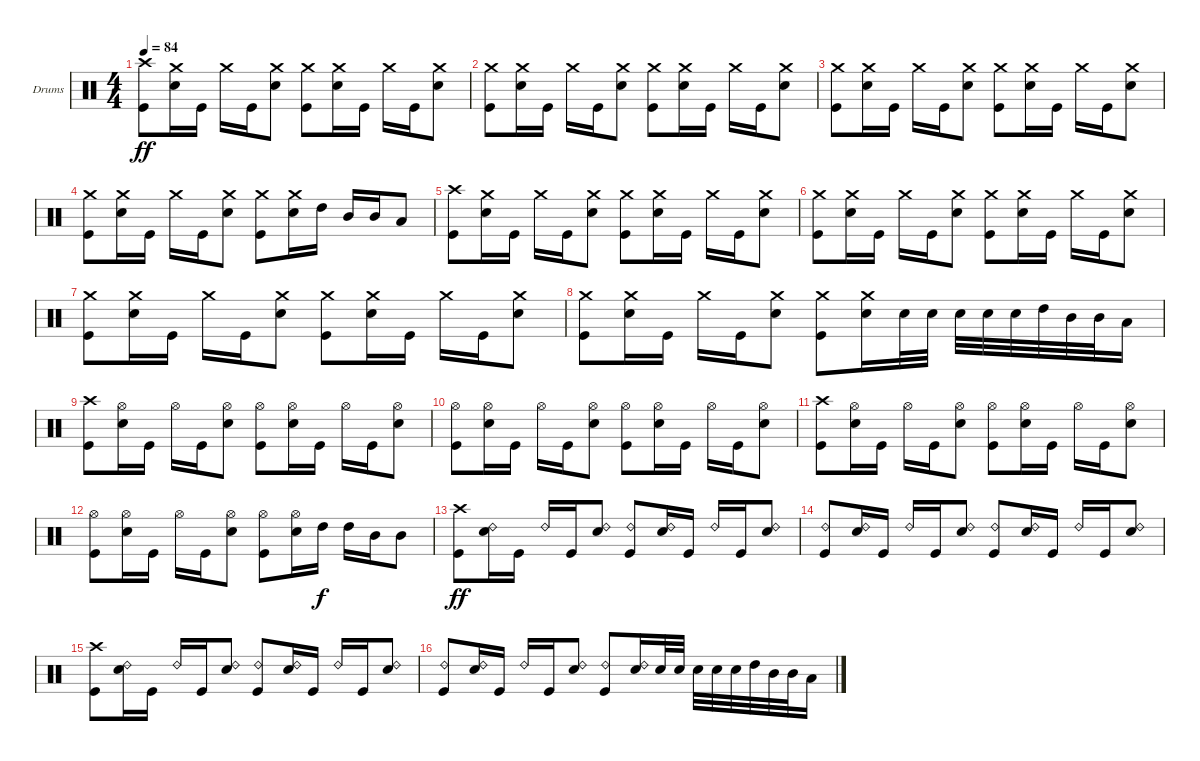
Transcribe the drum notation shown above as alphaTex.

\defaultSystemsLayout 4
\bracketExtendMode groupsimilarinstruments
\firstSystemTrackNameOrientation horizontal
\otherSystemsTrackNameOrientation horizontal
\track ("Drumkit" "Drums") {instrument percussion}
\staff {score}
\articulation defaults
\ts (4 4)
\tempo 84
\clef neutral
\ks c
("Kick (hit)" "Crash high (hit)").8{dy ff} ("Snare (hit) 2" "Crash medium (hit)").16 "Kick (hit)".16 "Crash medium (hit)".16 "Kick (hit)".16 ("Snare (hit) 2" "Crash medium (hit)").8 ("Kick (hit)" "Crash medium (hit)").8 ("Snare (hit) 2" "Crash medium (hit)").16 "Kick (hit)".16 "Crash medium (hit)".16 "Kick (hit)".16 ("Snare (hit) 2" "Crash medium (hit)").8 |
("Kick (hit)" "Crash medium (hit)").8 ("Snare (hit) 2" "Crash medium (hit)").16 "Kick (hit)".16 "Crash medium (hit)".16 "Kick (hit)".16 ("Snare (hit) 2" "Crash medium (hit)").8 ("Kick (hit)" "Crash medium (hit)").8 ("Snare (hit) 2" "Crash medium (hit)").16 "Kick (hit)".16 "Crash medium (hit)".16 "Kick (hit)".16 ("Snare (hit) 2" "Crash medium (hit)").8 |
("Kick (hit)" "Crash medium (hit)").8 ("Snare (hit) 2" "Crash medium (hit)").16 "Kick (hit)".16 "Crash medium (hit)".16 "Kick (hit)".16 ("Snare (hit) 2" "Crash medium (hit)").8 ("Kick (hit)" "Crash medium (hit)").8 ("Snare (hit) 2" "Crash medium (hit)").16 "Kick (hit)".16 "Crash medium (hit)".16 "Kick (hit)".16 ("Snare (hit) 2" "Crash medium (hit)").8 |
("Kick (hit)" "Crash medium (hit)").8 ("Snare (hit) 2" "Crash medium (hit)").16 "Kick (hit)".16 "Crash medium (hit)".16 "Kick (hit)".16 ("Snare (hit) 2" "Crash medium (hit)").8 ("Kick (hit)" "Crash medium (hit)").8 ("Snare (hit) 2" "Crash medium (hit)").16 "High Tom (hit)".16 "Mid Tom (hit)".16 "Mid Tom (hit)".16 "Low Tom (hit)".8 |
("Kick (hit)" "Crash high (hit)").8 ("Snare (hit) 2" "Crash medium (hit)").16 "Kick (hit)".16 "Crash medium (hit)".16 "Kick (hit)".16 ("Snare (hit) 2" "Crash medium (hit)").8 ("Kick (hit)" "Crash medium (hit)").8 ("Snare (hit) 2" "Crash medium (hit)").16 "Kick (hit)".16 "Crash medium (hit)".16 "Kick (hit)".16 ("Snare (hit) 2" "Crash medium (hit)").8 |
("Kick (hit)" "Crash medium (hit)").8 ("Snare (hit) 2" "Crash medium (hit)").16 "Kick (hit)".16 "Crash medium (hit)".16 "Kick (hit)".16 ("Snare (hit) 2" "Crash medium (hit)").8 ("Kick (hit)" "Crash medium (hit)").8 ("Snare (hit) 2" "Crash medium (hit)").16 "Kick (hit)".16 "Crash medium (hit)".16 "Kick (hit)".16 ("Snare (hit) 2" "Crash medium (hit)").8 |
("Kick (hit)" "Crash medium (hit)").8 ("Snare (hit) 2" "Crash medium (hit)").16 "Kick (hit)".16 "Crash medium (hit)".16 "Kick (hit)".16 ("Snare (hit) 2" "Crash medium (hit)").8 ("Kick (hit)" "Crash medium (hit)").8 ("Snare (hit) 2" "Crash medium (hit)").16 "Kick (hit)".16 "Crash medium (hit)".16 "Kick (hit)".16 ("Snare (hit) 2" "Crash medium (hit)").8 |
("Kick (hit)" "Crash medium (hit)").8 ("Snare (hit) 2" "Crash medium (hit)").16 "Kick (hit)".16 "Crash medium (hit)".16 "Kick (hit)".16 ("Snare (hit) 2" "Crash medium (hit)").8 ("Kick (hit)" "Crash medium (hit)").8 ("Crash medium (hit)" "Snare (hit) 2").16 "Snare (hit) 2".32 "Snare (hit) 2".32 "Snare (hit) 2".32 "Snare (hit) 2".32 "Snare (hit) 2".32 "High Tom (hit)".32 "Mid Tom (hit)".32 "Mid Tom (hit)".32 "Low Tom (hit)".16 |
("Kick (hit)" "Crash high (hit)").8 ("Snare (hit) 2" "Hi-Hat (open)").16 "Kick (hit)".16 "Hi-Hat (open)".16 "Kick (hit)".16 ("Snare (hit) 2" "Hi-Hat (open)").8 ("Kick (hit)" "Hi-Hat (open)").8 ("Snare (hit) 2" "Hi-Hat (open)").16 "Kick (hit)".16 "Hi-Hat (open)".16 "Kick (hit)".16 ("Snare (hit) 2" "Hi-Hat (open)").8 |
("Kick (hit)" "Hi-Hat (open)").8 ("Snare (hit) 2" "Hi-Hat (open)").16 "Kick (hit)".16 "Hi-Hat (open)".16 "Kick (hit)".16 ("Snare (hit) 2" "Hi-Hat (open)").8 ("Kick (hit)" "Hi-Hat (open)").8 ("Snare (hit) 2" "Hi-Hat (open)").16 "Kick (hit)".16 "Hi-Hat (open)".16 "Kick (hit)".16 ("Snare (hit) 2" "Hi-Hat (open)").8 |
("Kick (hit)" "Crash high (hit)").8 ("Snare (hit) 2" "Hi-Hat (open)").16 "Kick (hit)".16 "Hi-Hat (open)".16 "Kick (hit)".16 ("Snare (hit) 2" "Hi-Hat (open)").8 ("Kick (hit)" "Hi-Hat (open)").8 ("Snare (hit) 2" "Hi-Hat (open)").16 "Kick (hit)".16 "Hi-Hat (open)".16 "Kick (hit)".16 ("Snare (hit) 2" "Hi-Hat (open)").8 |
("Kick (hit)" "Hi-Hat (open)").8 ("Snare (hit) 2" "Hi-Hat (open)").16 "Kick (hit)".16 "Hi-Hat (open)".16 "Kick (hit)".16 ("Snare (hit) 2" "Hi-Hat (open)").8 ("Kick (hit)" "Hi-Hat (open)").8 ("Snare (hit) 2" "Hi-Hat (open)").16 "High Tom (hit)".16{dy f} "High Tom (hit)".16 "Mid Tom (hit)".16 "Mid Tom (hit)".8 |
("Kick (hit)" "Crash high (hit)").8{dy ff} ("Snare (hit) 2" "Ride (bell) 2").16 "Kick (hit)".16 "Ride (bell) 2".16 "Kick (hit)".16 ("Snare (hit) 2" "Ride (bell) 2").8 ("Kick (hit)" "Ride (bell) 2").8 ("Snare (hit) 2" "Ride (bell) 2").16 "Kick (hit)".16 "Ride (bell) 2".16 "Kick (hit)".16 ("Snare (hit) 2" "Ride (bell) 2").8 |
("Kick (hit)" "Ride (bell) 2").8 ("Snare (hit) 2" "Ride (bell) 2").16 "Kick (hit)".16 "Ride (bell) 2".16 "Kick (hit)".16 ("Snare (hit) 2" "Ride (bell) 2").8 ("Kick (hit)" "Ride (bell) 2").8 ("Snare (hit) 2" "Ride (bell) 2").16 "Kick (hit)".16 "Ride (bell) 2".16 "Kick (hit)".16 ("Snare (hit) 2" "Ride (bell) 2").8 |
("Kick (hit)" "Crash high (hit)").8 ("Snare (hit) 2" "Ride (bell) 2").16 "Kick (hit)".16 "Ride (bell) 2".16 "Kick (hit)".16 ("Snare (hit) 2" "Ride (bell) 2").8 ("Kick (hit)" "Ride (bell) 2").8 ("Snare (hit) 2" "Ride (bell) 2").16 "Kick (hit)".16 "Ride (bell) 2".16 "Kick (hit)".16 ("Snare (hit) 2" "Ride (bell) 2").8 |
("Kick (hit)" "Ride (bell) 2").8 ("Snare (hit) 2" "Ride (bell) 2").16 "Kick (hit)".16 "Ride (bell) 2".16 "Kick (hit)".16 ("Snare (hit) 2" "Ride (bell) 2").8 ("Kick (hit)" "Ride (bell) 2").8 ("Snare (hit) 2" "Ride (bell) 2").16 "Snare (hit) 2".32 "Snare (hit) 2".32 "Snare (hit) 2".32 "Snare (hit) 2".32 "Snare (hit) 2".32 "High Tom (hit)".32 "Mid Tom (hit)".32 "Mid Tom (hit)".32 "Low Tom (hit)".16
